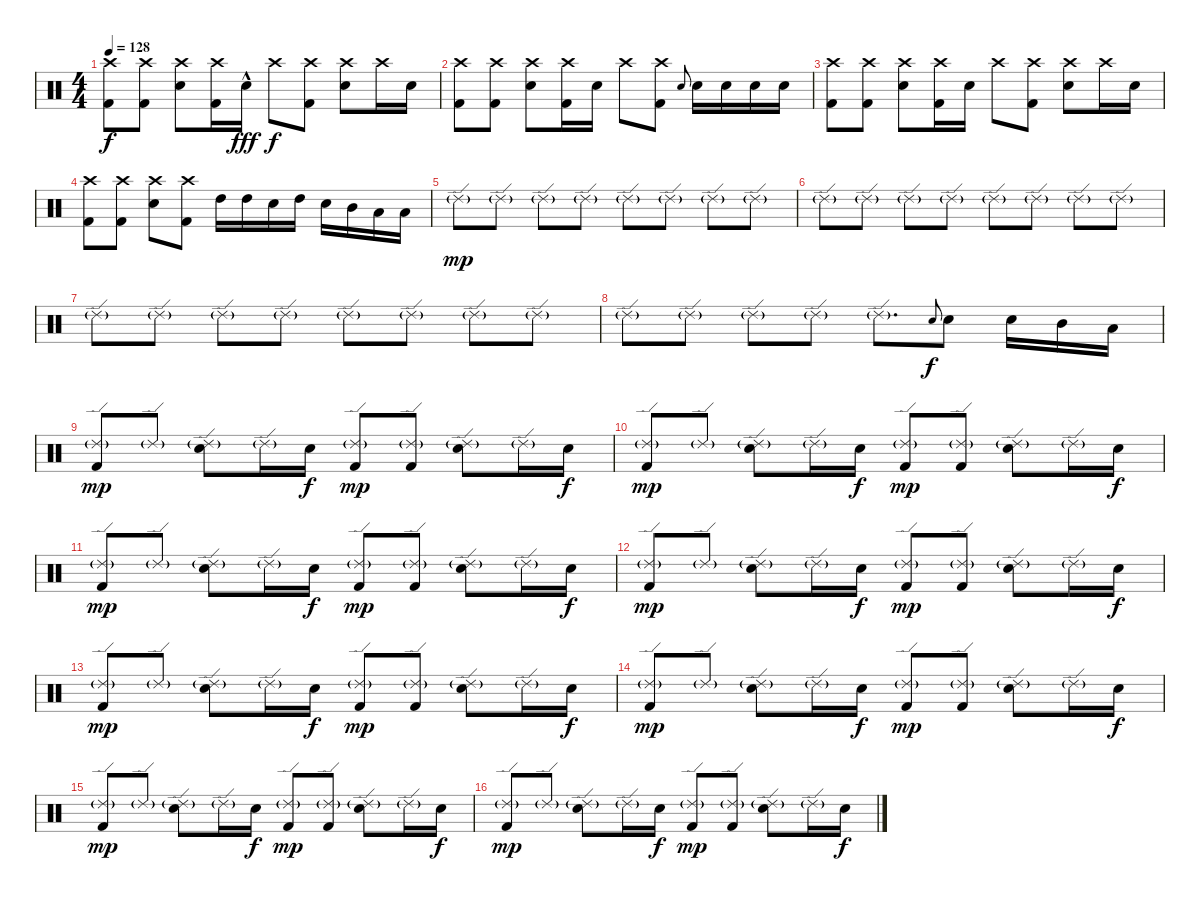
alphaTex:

\track "" {solo instrument percussion}
\staff {score}
\articulation defaults
\ts (4 4)
\tempo 128
\clef neutral
\ks c
("Crash high (hit)" "Kick (hit) 2").8{dy f} ("Crash high (hit)" "Kick (hit) 2").8 ("Crash high (hit)" "Snare (hit) 2").8 ("Crash high (hit)" "Kick (hit) 2").16 "Snare (hit) 2"{hac}.16{dy fff} "Crash high (hit)".8{dy f} ("Crash high (hit)" "Kick (hit) 2").8 ("Crash high (hit)" "Snare (hit) 2").8 "Crash high (hit)".16 "Snare (hit) 2".16 |
("Crash high (hit)" "Kick (hit) 2").8 ("Crash high (hit)" "Kick (hit) 2").8 ("Crash high (hit)" "Snare (hit) 2").8 ("Crash high (hit)" "Kick (hit) 2").16 "Snare (hit) 2".16 "Crash high (hit)".8 ("Crash high (hit)" "Kick (hit) 2").8 "Snare (hit) 2".8{gr onbeat} "Snare (hit) 2".16 "Snare (hit) 2".16 "Snare (hit) 2".16 "Snare (hit) 2".16 |
("Crash high (hit)" "Kick (hit) 2").8 ("Crash high (hit)" "Kick (hit) 2").8 ("Crash high (hit)" "Snare (hit) 2").8 ("Crash high (hit)" "Kick (hit) 2").16 "Snare (hit) 2".16 "Crash high (hit)".8 ("Crash high (hit)" "Kick (hit) 2").8 ("Crash high (hit)" "Snare (hit) 2").8 "Crash high (hit)".16 "Snare (hit) 2".16 |
("Crash high (hit)" "Kick (hit) 2").8 ("Crash high (hit)" "Kick (hit) 2").8 ("Crash high (hit)" "Snare (hit) 2").8 ("Crash high (hit)" "Kick (hit) 2").8 "High Tom (hit)".16 "High Tom (hit)".16 "Snare (hit) 2".16 "High Tom (hit)".16 "Snare (hit) 2".16 "Mid Tom (hit)".16 "Low Tom (hit)".16 "Low Tom (hit)".16 |
"Ride (edge) 2"{g}.8{dy mp} "Ride (edge) 2"{g}.8 "Ride (edge) 2"{g}.8 "Ride (edge) 2"{g}.8 "Ride (edge) 2"{g}.8 "Ride (edge) 2"{g}.8 "Ride (edge) 2"{g}.8 "Ride (edge) 2"{g}.8 |
"Ride (edge) 2"{g}.8 "Ride (edge) 2"{g}.8 "Ride (edge) 2"{g}.8 "Ride (edge) 2"{g}.8 "Ride (edge) 2"{g}.8 "Ride (edge) 2"{g}.8 "Ride (edge) 2"{g}.8 "Ride (edge) 2"{g}.8 |
"Ride (edge) 2"{g}.8 "Ride (edge) 2"{g}.8 "Ride (edge) 2"{g}.8 "Ride (edge) 2"{g}.8 "Ride (edge) 2"{g}.8 "Ride (edge) 2"{g}.8 "Ride (edge) 2"{g}.8 "Ride (edge) 2"{g}.8 |
"Ride (edge) 2"{g}.8 "Ride (edge) 2"{g}.8 "Ride (edge) 2"{g}.8 "Ride (edge) 2"{g}.8 "Ride (edge) 2"{g}.8{d} "Snare (hit) 2".8{gr onbeat dy f} "Snare (hit) 2".8 "Snare (hit) 2".16 "Mid Tom (hit)".16 "Low Tom (hit)".16 |
("Ride (edge) 2"{g} "Kick (hit) 2").8{dy mp} "Ride (edge) 2"{g}.8 ("Ride (edge) 2"{g} "Snare (hit) 2").8 "Ride (edge) 2"{g}.16 "Snare (hit) 2".16{dy f} ("Ride (edge) 2"{g} "Kick (hit) 2").8{dy mp} ("Ride (edge) 2"{g} "Kick (hit) 2").8 ("Ride (edge) 2"{g} "Snare (hit) 2").8 "Ride (edge) 2"{g}.16 "Snare (hit) 2".16{dy f} |
("Ride (edge) 2"{g} "Kick (hit) 2").8{dy mp} "Ride (edge) 2"{g}.8 ("Ride (edge) 2"{g} "Snare (hit) 2").8 "Ride (edge) 2"{g}.16 "Snare (hit) 2".16{dy f} ("Ride (edge) 2"{g} "Kick (hit) 2").8{dy mp} ("Ride (edge) 2"{g} "Kick (hit) 2").8 ("Ride (edge) 2"{g} "Snare (hit) 2").8 "Ride (edge) 2"{g}.16 "Snare (hit) 2".16{dy f} |
("Ride (edge) 2"{g} "Kick (hit) 2").8{dy mp} "Ride (edge) 2"{g}.8 ("Ride (edge) 2"{g} "Snare (hit) 2").8 "Ride (edge) 2"{g}.16 "Snare (hit) 2".16{dy f} ("Ride (edge) 2"{g} "Kick (hit) 2").8{dy mp} ("Ride (edge) 2"{g} "Kick (hit) 2").8 ("Ride (edge) 2"{g} "Snare (hit) 2").8 "Ride (edge) 2"{g}.16 "Snare (hit) 2".16{dy f} |
("Ride (edge) 2"{g} "Kick (hit) 2").8{dy mp} "Ride (edge) 2"{g}.8 ("Ride (edge) 2"{g} "Snare (hit) 2").8 "Ride (edge) 2"{g}.16 "Snare (hit) 2".16{dy f} ("Ride (edge) 2"{g} "Kick (hit) 2").8{dy mp} ("Ride (edge) 2"{g} "Kick (hit) 2").8 ("Ride (edge) 2"{g} "Snare (hit) 2").8 "Ride (edge) 2"{g}.16 "Snare (hit) 2".16{dy f} |
("Ride (edge) 2"{g} "Kick (hit) 2").8{dy mp} "Ride (edge) 2"{g}.8 ("Ride (edge) 2"{g} "Snare (hit) 2").8 "Ride (edge) 2"{g}.16 "Snare (hit) 2".16{dy f} ("Ride (edge) 2"{g} "Kick (hit) 2").8{dy mp} ("Ride (edge) 2"{g} "Kick (hit) 2").8 ("Ride (edge) 2"{g} "Snare (hit) 2").8 "Ride (edge) 2"{g}.16 "Snare (hit) 2".16{dy f} |
("Ride (edge) 2"{g} "Kick (hit) 2").8{dy mp} "Ride (edge) 2"{g}.8 ("Ride (edge) 2"{g} "Snare (hit) 2").8 "Ride (edge) 2"{g}.16 "Snare (hit) 2".16{dy f} ("Ride (edge) 2"{g} "Kick (hit) 2").8{dy mp} ("Ride (edge) 2"{g} "Kick (hit) 2").8 ("Ride (edge) 2"{g} "Snare (hit) 2").8 "Ride (edge) 2"{g}.16 "Snare (hit) 2".16{dy f} |
("Ride (edge) 2"{g} "Kick (hit) 2").8{dy mp} "Ride (edge) 2"{g}.8 ("Ride (edge) 2"{g} "Snare (hit) 2").8 "Ride (edge) 2"{g}.16 "Snare (hit) 2".16{dy f} ("Ride (edge) 2"{g} "Kick (hit) 2").8{dy mp} ("Ride (edge) 2"{g} "Kick (hit) 2").8 ("Ride (edge) 2"{g} "Snare (hit) 2").8 "Ride (edge) 2"{g}.16 "Snare (hit) 2".16{dy f} |
("Ride (edge) 2"{g} "Kick (hit) 2").8{dy mp} "Ride (edge) 2"{g}.8 ("Ride (edge) 2"{g} "Snare (hit) 2").8 "Ride (edge) 2"{g}.16 "Snare (hit) 2".16{dy f} ("Ride (edge) 2"{g} "Kick (hit) 2").8{dy mp} ("Ride (edge) 2"{g} "Kick (hit) 2").8 ("Ride (edge) 2"{g} "Snare (hit) 2").8 "Ride (edge) 2"{g}.16 "Snare (hit) 2".16{dy f}
